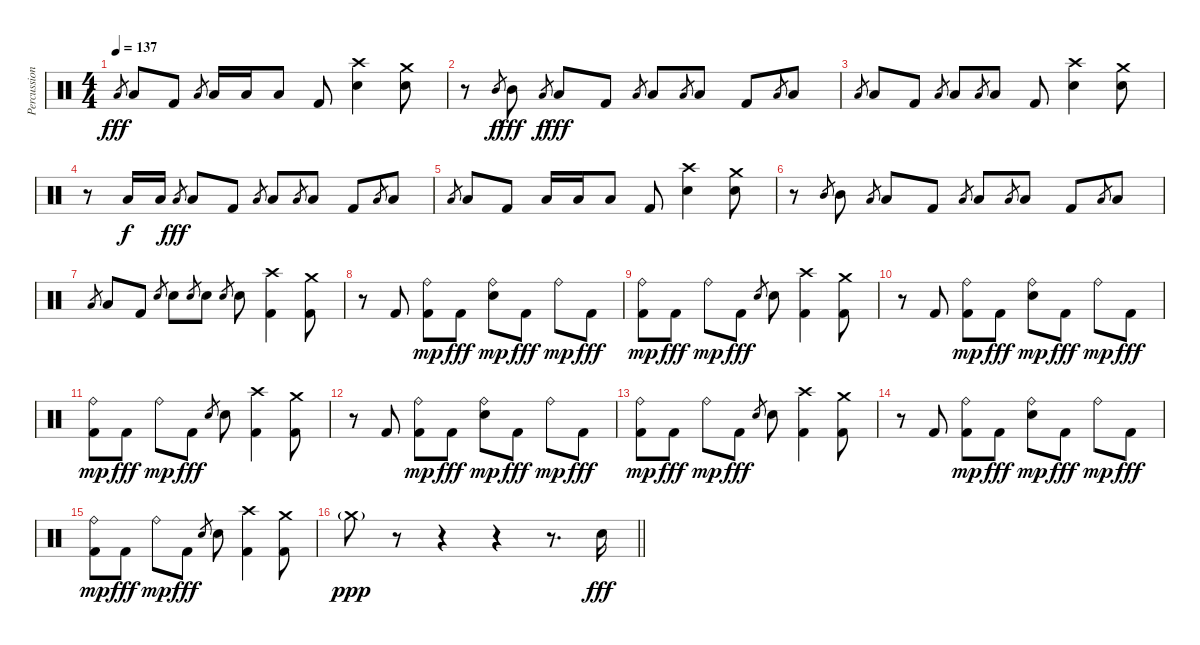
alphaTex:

\track ("Percussion" "Percussion") {instrument percussion}
\staff {score}
\articulation defaults
\ts (4 4)
\tempo 137
\clef neutral
\ks c "Low Tom (hit)".8{gr dy fff} "Low Tom (hit)".8 "Kick (hit) 2".8 "Low Tom (hit)".8{gr} "Low Tom (hit)".16 "Low Tom (hit)".16 "Low Tom (hit)".8 "Kick (hit) 2".8
("Electric Snare (hit)" "Crash high (hit)").4 ("Electric Snare (hit)" "Crash medium (hit)").8 |
r.8 "Mid Tom (hit)".8{gr dy f} "Mid Tom (hit)".8{dy fff} "Low Tom (hit)".8{gr dy f} "Low Tom (hit)".8{dy fff} "Kick (hit) 2".8 "Low Tom (hit)".8{gr} "Low Tom (hit)".8 "Low Tom (hit)".8{gr} "Low Tom (hit)".8 "Kick (hit) 2".8 "Low Tom (hit)".8{gr} "Low Tom (hit)".8 |
"Low Tom (hit)".8{gr} "Low Tom (hit)".8 "Kick (hit) 2".8 "Low Tom (hit)".8{gr} "Low Tom (hit)".8 "Low Tom (hit)".8{gr} "Low Tom (hit)".8 "Kick (hit) 2".8 ("Electric Snare (hit)" "Crash high (hit)").4 ("Electric Snare (hit)" "Crash medium (hit)").8 |
r.8 "Low Tom (hit)".16{dy f} "Low Tom (hit)".16 "Low Tom (hit)".8{gr dy fff} "Low Tom (hit)".8 "Kick (hit) 2".8 "Low Tom (hit)".8{gr} "Low Tom (hit)".8 "Low Tom (hit)".8{gr} "Low Tom (hit)".8 "Kick (hit) 2".8 "Low Tom (hit)".8{gr} "Low Tom (hit)".8 |
"Low Tom (hit)".8{gr} "Low Tom (hit)".8 "Kick (hit) 2".8 "Low Tom (hit)".16 "Low Tom (hit)".16 "Low Tom (hit)".8 "Kick (hit) 2".8 ("Electric Snare (hit)" "Crash high (hit)").4 ("Electric Snare (hit)" "Crash medium (hit)").8 |
r.8 "Mid Tom (hit)".8{gr} "Mid Tom (hit)".8 "Low Tom (hit)".8{gr} "Low Tom (hit)".8 "Kick (hit) 2".8 "Low Tom (hit)".8{gr} "Low Tom (hit)".8 "Low Tom (hit)".8{gr} "Low Tom (hit)".8 "Kick (hit) 2".8 "Low Tom (hit)".8{gr} "Low Tom (hit)".8 |
"Low Tom (hit)".8{gr} "Low Tom (hit)".8 "Kick (hit) 2".8 "Electric Snare (hit)".8{gr} "Electric Snare (hit)".8 "Electric Snare (hit)".8{gr} "Electric Snare (hit)".8 "Electric Snare (hit)".8{gr} "Electric Snare (hit)".8 ("Kick (hit) 2" "Crash high (hit)").4 ("Kick (hit) 2" "Crash medium (hit)").8 |
r.8 "Kick (hit) 2".8 ("Kick (hit) 2" "Ride (bell)").8{dy mp} "Kick (hit) 2".8{dy fff} ("Electric Snare (hit)" "Ride (bell)").8{dy mp} "Kick (hit) 2".8{dy fff} "Ride (bell)".8{dy mp} "Kick (hit) 2".8{dy fff} |
("Kick (hit) 2" "Ride (bell)").8{dy mp} "Kick (hit) 2".8{dy fff} "Ride (bell)".8{dy mp} "Kick (hit) 2".8{dy fff} "Electric Snare (hit)".8{gr} "Electric Snare (hit)".8 ("Kick (hit) 2" "Crash high (hit)").4 ("Kick (hit) 2" "Crash medium (hit)").8 |
r.8 "Kick (hit) 2".8 ("Kick (hit) 2" "Ride (bell)").8{dy mp} "Kick (hit) 2".8{dy fff} ("Electric Snare (hit)" "Ride (bell)").8{dy mp} "Kick (hit) 2".8{dy fff} "Ride (bell)".8{dy mp} "Kick (hit) 2".8{dy fff} |
("Kick (hit) 2" "Ride (bell)").8{dy mp} "Kick (hit) 2".8{dy fff} "Ride (bell)".8{dy mp} "Kick (hit) 2".8{dy fff} "Electric Snare (hit)".8{gr} "Electric Snare (hit)".8 ("Kick (hit) 2" "Crash high (hit)").4 ("Kick (hit) 2" "Crash medium (hit)").8 |
r.8 "Kick (hit) 2".8 ("Kick (hit) 2" "Ride (bell)").8{dy mp} "Kick (hit) 2".8{dy fff} ("Electric Snare (hit)" "Ride (bell)").8{dy mp} "Kick (hit) 2".8{dy fff} "Ride (bell)".8{dy mp} "Kick (hit) 2".8{dy fff} |
("Kick (hit) 2" "Ride (bell)").8{dy mp} "Kick (hit) 2".8{dy fff} "Ride (bell)".8{dy mp} "Kick (hit) 2".8{dy fff} "Electric Snare (hit)".8{gr} "Electric Snare (hit)".8 ("Kick (hit) 2" "Crash high (hit)").4 ("Kick (hit) 2" "Crash medium (hit)").8 |
r.8 "Kick (hit) 2".8 ("Kick (hit) 2" "Ride (bell)").8{dy mp} "Kick (hit) 2".8{dy fff} ("Electric Snare (hit)" "Ride (bell)").8{dy mp} "Kick (hit) 2".8{dy fff} "Ride (bell)".8{dy mp} "Kick (hit) 2".8{dy fff} |
("Kick (hit) 2" "Ride (bell)").8{dy mp} "Kick (hit) 2".8{dy fff} "Ride (bell)".8{dy mp} "Kick (hit) 2".8{dy fff} "Electric Snare (hit)".8{gr} "Electric Snare (hit)".8 ("Kick (hit) 2" "Crash high (hit)").4 ("Kick (hit) 2" "Crash medium (hit)").8 |
\barLineRight lightlight "Crash medium (hit)"{g}.8{dy ppp}
r.8 r.4 r.4 r.8{d} "Electric Snare (hit)".16{dy fff}
